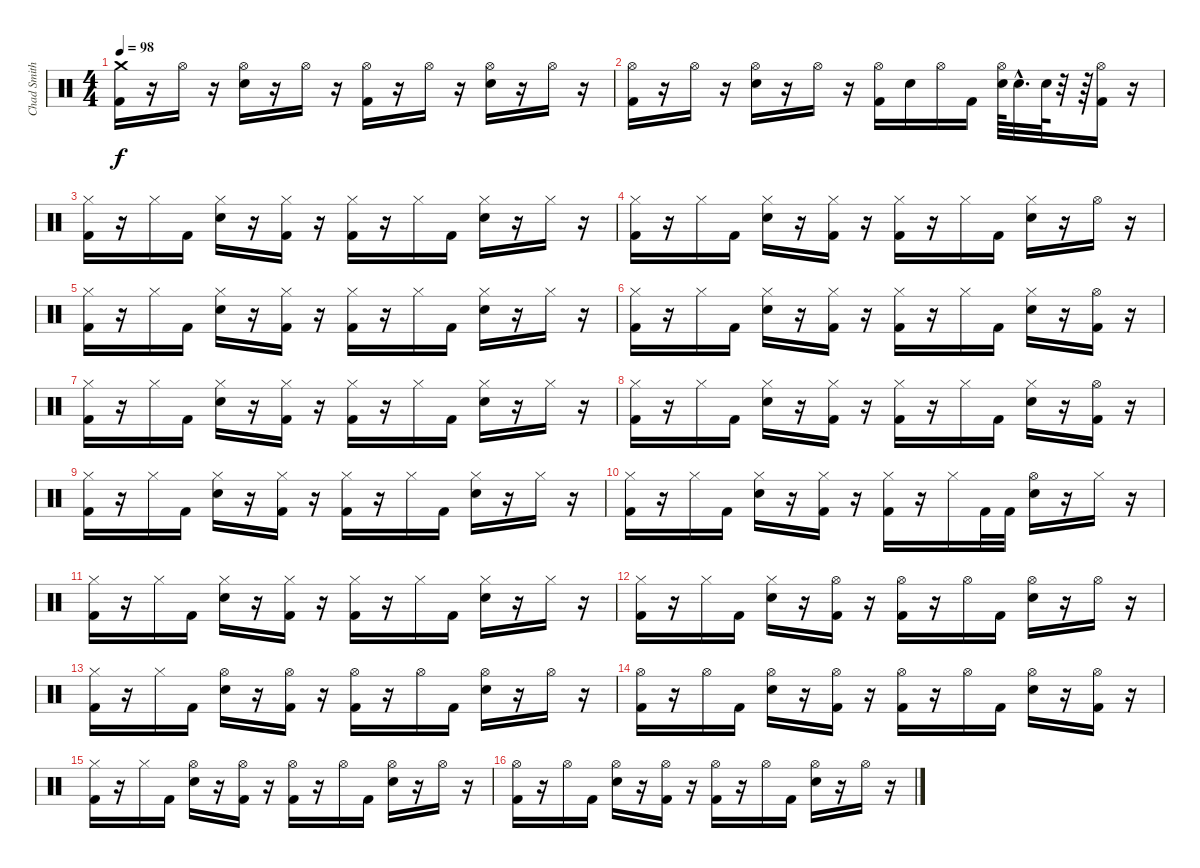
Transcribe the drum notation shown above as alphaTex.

\track ("Chad Smith" "Chad Smith") {instrument percussion}
\staff {score}
\articulation defaults
\ts (4 4)
\tempo 98
\clef neutral
\ks c
("Kick (hit) 2" "Crash medium (hit)").16{dy f} r.16 "Hi-Hat (open)".16 r.16 ("Electric Snare (hit)" "Hi-Hat (open)").16 r.16 "Hi-Hat (open)".16 r.16 ("Kick (hit) 2" "Hi-Hat (open)").16 r.16 "Hi-Hat (open)".16 r.16 ("Hi-Hat (open)" "Electric Snare (hit)").16 r.16 "Hi-Hat (open)".16 r.16 |
("Hi-Hat (open)" "Kick (hit) 2").16 r.16 "Hi-Hat (open)".16 r.16 ("Hi-Hat (open)" "Electric Snare (hit)").16 r.16 "Hi-Hat (open)".16 r.16 ("Kick (hit) 2" "Hi-Hat (open)").16 "Electric Snare (hit)".16 "Hi-Hat (open)".16 "Kick (hit) 2".16 ("Hi-Hat (open)" "Electric Snare (hit)").64 "Electric Snare (hit)"{hac}.32{d} "Electric Snare (hit)".64 r.32 r.64 ("Kick (hit) 2" "Hi-Hat (open)").16 r.16 |
("Kick (hit) 2" "Hi-Hat (closed)").16 r.16 "Hi-Hat (closed)".16 "Kick (hit) 2".16 ("Electric Snare (hit)" "Hi-Hat (closed)").16 r.16 ("Kick (hit) 2" "Hi-Hat (closed)").16 r.16 ("Kick (hit) 2" "Hi-Hat (closed)").16 r.16 "Hi-Hat (closed)".16 "Kick (hit) 2".16 ("Electric Snare (hit)" "Hi-Hat (closed)").16 r.16 "Hi-Hat (closed)".16 r.16 |
("Hi-Hat (closed)" "Kick (hit) 2").16 r.16 "Hi-Hat (closed)".16 "Kick (hit) 2".16 ("Electric Snare (hit)" "Hi-Hat (closed)").16 r.16 ("Kick (hit) 2" "Hi-Hat (closed)").16 r.16 ("Kick (hit) 2" "Hi-Hat (closed)").16 r.16 "Hi-Hat (closed)".16 "Kick (hit) 2".16 ("Electric Snare (hit)" "Hi-Hat (closed)").16 r.16 "Hi-Hat (open)".16 r.16 |
("Kick (hit) 2" "Hi-Hat (closed)").16 r.16 "Hi-Hat (closed)".16 "Kick (hit) 2".16 ("Electric Snare (hit)" "Hi-Hat (closed)").16 r.16 ("Kick (hit) 2" "Hi-Hat (closed)").16 r.16 ("Kick (hit) 2" "Hi-Hat (closed)").16 r.16 "Hi-Hat (closed)".16 "Kick (hit) 2".16 ("Electric Snare (hit)" "Hi-Hat (closed)").16 r.16 "Hi-Hat (closed)".16 r.16 |
("Hi-Hat (closed)" "Kick (hit) 2").16 r.16 "Hi-Hat (closed)".16 "Kick (hit) 2".16 ("Electric Snare (hit)" "Hi-Hat (closed)").16 r.16 ("Kick (hit) 2" "Hi-Hat (closed)").16 r.16 ("Kick (hit) 2" "Hi-Hat (closed)").16 r.16 "Hi-Hat (closed)".16 "Kick (hit) 2".16 ("Electric Snare (hit)" "Hi-Hat (closed)").16 r.16 ("Kick (hit) 2" "Hi-Hat (open)").16 r.16 |
("Kick (hit) 2" "Hi-Hat (closed)").16 r.16 "Hi-Hat (closed)".16 "Kick (hit) 2".16 ("Electric Snare (hit)" "Hi-Hat (closed)").16 r.16 ("Kick (hit) 2" "Hi-Hat (closed)").16 r.16 ("Kick (hit) 2" "Hi-Hat (closed)").16 r.16 "Hi-Hat (closed)".16 "Kick (hit) 2".16 ("Electric Snare (hit)" "Hi-Hat (closed)").16 r.16 "Hi-Hat (closed)".16 r.16 |
("Hi-Hat (closed)" "Kick (hit) 2").16 r.16 "Hi-Hat (closed)".16 "Kick (hit) 2".16 ("Electric Snare (hit)" "Hi-Hat (closed)").16 r.16 ("Kick (hit) 2" "Hi-Hat (closed)").16 r.16 ("Kick (hit) 2" "Hi-Hat (closed)").16 r.16 "Hi-Hat (closed)".16 "Kick (hit) 2".16 ("Electric Snare (hit)" "Hi-Hat (closed)").16 r.16 ("Kick (hit) 2" "Hi-Hat (open)").16 r.16 |
("Kick (hit) 2" "Hi-Hat (closed)").16 r.16 "Hi-Hat (closed)".16 "Kick (hit) 2".16 ("Electric Snare (hit)" "Hi-Hat (closed)").16 r.16 ("Kick (hit) 2" "Hi-Hat (closed)").16 r.16 ("Kick (hit) 2" "Hi-Hat (closed)").16 r.16 "Hi-Hat (closed)".16 "Kick (hit) 2".16 ("Electric Snare (hit)" "Hi-Hat (closed)").16 r.16 "Hi-Hat (closed)".16 r.16 |
("Hi-Hat (closed)" "Kick (hit) 2").16 r.16 "Hi-Hat (closed)".16 "Kick (hit) 2".16 ("Electric Snare (hit)" "Hi-Hat (closed)").16 r.16 ("Kick (hit) 2" "Hi-Hat (closed)").16 r.16 ("Kick (hit) 2" "Hi-Hat (closed)").16 r.16 "Hi-Hat (closed)".16 "Kick (hit) 2".32 "Kick (hit) 2".32 ("Electric Snare (hit)" "Hi-Hat (open)").16 r.16 "Hi-Hat (closed)".16 r.16 |
("Kick (hit) 2" "Hi-Hat (closed)").16 r.16 "Hi-Hat (closed)".16 "Kick (hit) 2".16 ("Electric Snare (hit)" "Hi-Hat (closed)").16 r.16 ("Kick (hit) 2" "Hi-Hat (closed)").16 r.16 ("Kick (hit) 2" "Hi-Hat (closed)").16 r.16 "Hi-Hat (closed)".16 "Kick (hit) 2".16 ("Electric Snare (hit)" "Hi-Hat (closed)").16 r.16 "Hi-Hat (closed)".16 r.16 |
("Hi-Hat (closed)" "Kick (hit) 2").16 r.16 "Hi-Hat (closed)".16 "Kick (hit) 2".16 ("Electric Snare (hit)" "Hi-Hat (closed)").16 r.16 ("Kick (hit) 2" "Hi-Hat (open)").16 r.16 ("Kick (hit) 2" "Hi-Hat (open)").16 r.16 "Hi-Hat (open)".16 "Kick (hit) 2".16 ("Electric Snare (hit)" "Hi-Hat (open)").16 r.16 "Hi-Hat (open)".16 r.16 |
("Kick (hit) 2" "Hi-Hat (closed)").16 r.16 "Hi-Hat (closed)".16 "Kick (hit) 2".16 ("Electric Snare (hit)" "Hi-Hat (open)").16 r.16 ("Kick (hit) 2" "Hi-Hat (open)").16 r.16 ("Kick (hit) 2" "Hi-Hat (open)").16 r.16 "Hi-Hat (open)".16 "Kick (hit) 2".16 ("Electric Snare (hit)" "Hi-Hat (open)").16 r.16 "Hi-Hat (open)".16 r.16 |
("Hi-Hat (open)" "Kick (hit) 2").16 r.16 "Hi-Hat (open)".16 "Kick (hit) 2".16 ("Electric Snare (hit)" "Hi-Hat (open)").16 r.16 ("Kick (hit) 2" "Hi-Hat (open)").16 r.16 ("Kick (hit) 2" "Hi-Hat (open)").16 r.16 "Hi-Hat (open)".16 "Kick (hit) 2".16 ("Electric Snare (hit)" "Hi-Hat (open)").16 r.16 ("Kick (hit) 2" "Hi-Hat (open)").16 r.16 |
("Kick (hit) 2" "Hi-Hat (closed)").16 r.16 "Hi-Hat (closed)".16 "Kick (hit) 2".16 ("Electric Snare (hit)" "Hi-Hat (open)").16 r.16 ("Kick (hit) 2" "Hi-Hat (open)").16 r.16 ("Kick (hit) 2" "Hi-Hat (open)").16 r.16 "Hi-Hat (open)".16 "Kick (hit) 2".16 ("Electric Snare (hit)" "Hi-Hat (open)").16 r.16 "Hi-Hat (open)".16 r.16 |
("Kick (hit) 2" "Hi-Hat (open)").16 r.16 "Hi-Hat (open)".16 "Kick (hit) 2".16 ("Electric Snare (hit)" "Hi-Hat (open)").16 r.16 ("Kick (hit) 2" "Hi-Hat (open)").16 r.16 ("Kick (hit) 2" "Hi-Hat (open)").16 r.16 "Hi-Hat (open)".16 "Kick (hit) 2".16 ("Electric Snare (hit)" "Hi-Hat (open)").16 r.16 "Hi-Hat (open)".16 r.16
